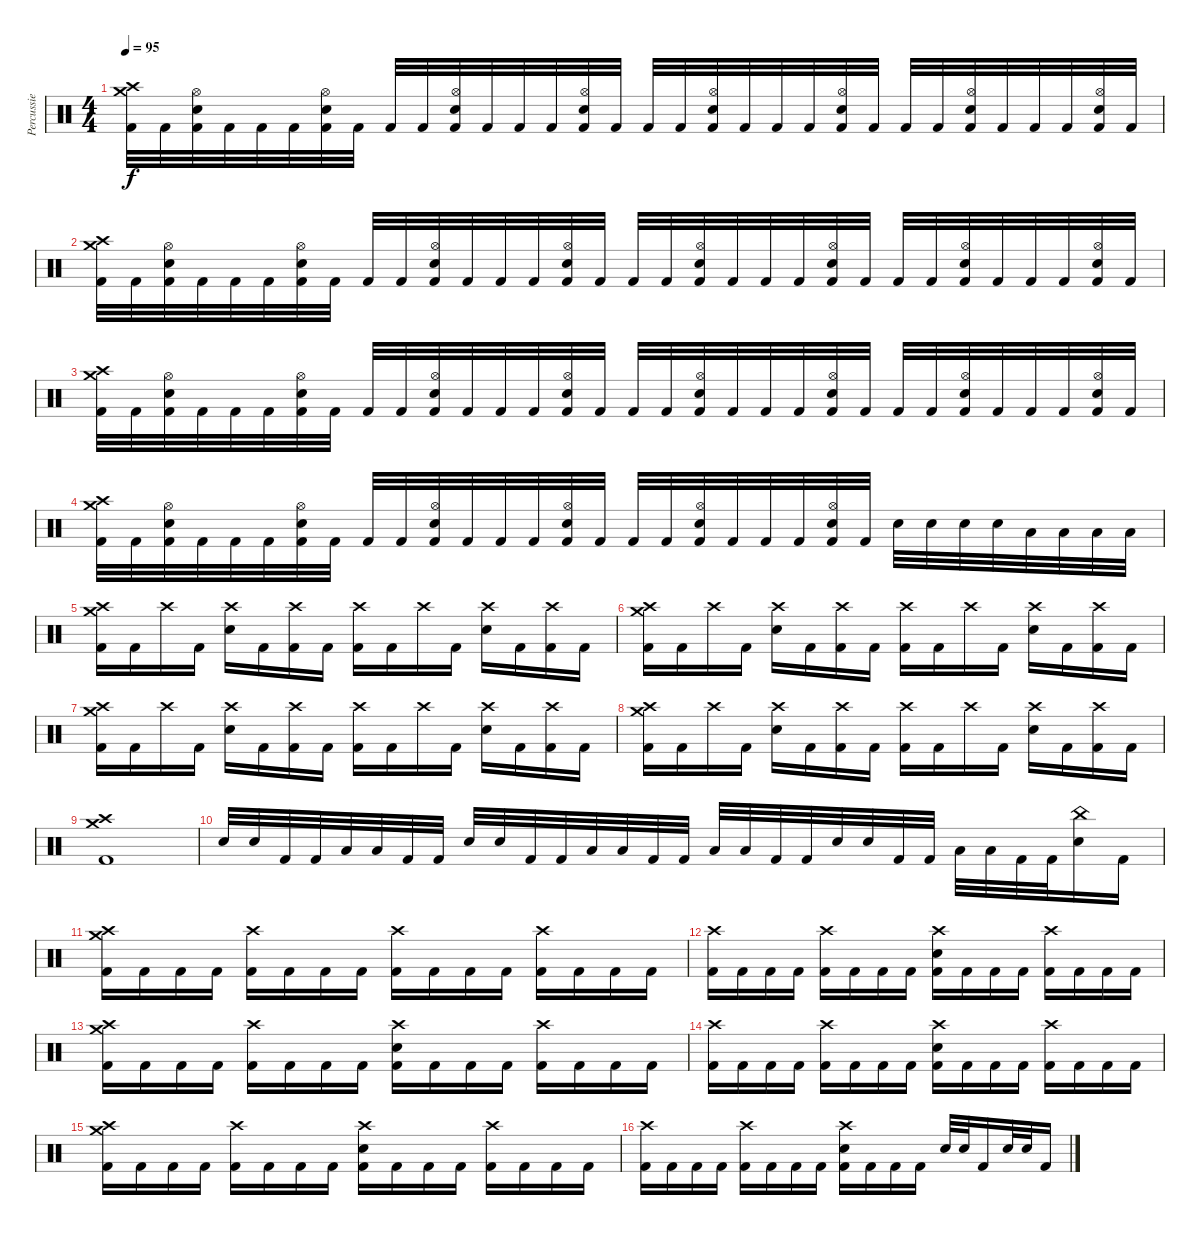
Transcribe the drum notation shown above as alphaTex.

\track ("Percussie" "Percussie") {instrument percussion}
\staff {score}
\articulation defaults
\ts (4 4)
\tempo 95
\clef neutral
\ks c
("Crash medium (hit)" "Crash high (hit)" "Kick (hit) 2").32{dy f} "Kick (hit) 2".32 ("Hi-Hat (open)" "Electric Snare (hit)" "Kick (hit) 2").32 "Kick (hit) 2".32 "Kick (hit) 2".32 "Kick (hit) 2".32 ("Hi-Hat (open)" "Electric Snare (hit)" "Kick (hit) 2").32 "Kick (hit) 2".32 "Kick (hit) 2".32 "Kick (hit) 2".32 ("Hi-Hat (open)" "Electric Snare (hit)" "Kick (hit) 2").32 "Kick (hit) 2".32 "Kick (hit) 2".32 "Kick (hit) 2".32 ("Hi-Hat (open)" "Electric Snare (hit)" "Kick (hit) 2").32 "Kick (hit) 2".32 "Kick (hit) 2".32 "Kick (hit) 2".32 ("Hi-Hat (open)" "Electric Snare (hit)" "Kick (hit) 2").32 "Kick (hit) 2".32 "Kick (hit) 2".32 "Kick (hit) 2".32 ("Hi-Hat (open)" "Electric Snare (hit)" "Kick (hit) 2").32 "Kick (hit) 2".32 "Kick (hit) 2".32 "Kick (hit) 2".32 ("Hi-Hat (open)" "Electric Snare (hit)" "Kick (hit) 2").32 "Kick (hit) 2".32 "Kick (hit) 2".32 "Kick (hit) 2".32 ("Hi-Hat (open)" "Electric Snare (hit)" "Kick (hit) 2").32 "Kick (hit) 2".32 |
("Crash medium (hit)" "Crash high (hit)" "Kick (hit) 2").32 "Kick (hit) 2".32 ("Hi-Hat (open)" "Electric Snare (hit)" "Kick (hit) 2").32 "Kick (hit) 2".32 "Kick (hit) 2".32 "Kick (hit) 2".32 ("Hi-Hat (open)" "Electric Snare (hit)" "Kick (hit) 2").32 "Kick (hit) 2".32 "Kick (hit) 2".32 "Kick (hit) 2".32 ("Hi-Hat (open)" "Electric Snare (hit)" "Kick (hit) 2").32 "Kick (hit) 2".32 "Kick (hit) 2".32 "Kick (hit) 2".32 ("Hi-Hat (open)" "Electric Snare (hit)" "Kick (hit) 2").32 "Kick (hit) 2".32 "Kick (hit) 2".32 "Kick (hit) 2".32 ("Hi-Hat (open)" "Electric Snare (hit)" "Kick (hit) 2").32 "Kick (hit) 2".32 "Kick (hit) 2".32 "Kick (hit) 2".32 ("Hi-Hat (open)" "Electric Snare (hit)" "Kick (hit) 2").32 "Kick (hit) 2".32 "Kick (hit) 2".32 "Kick (hit) 2".32 ("Hi-Hat (open)" "Electric Snare (hit)" "Kick (hit) 2").32 "Kick (hit) 2".32 "Kick (hit) 2".32 "Kick (hit) 2".32 ("Hi-Hat (open)" "Electric Snare (hit)" "Kick (hit) 2").32 "Kick (hit) 2".32 |
("Crash medium (hit)" "Crash high (hit)" "Kick (hit) 2").32 "Kick (hit) 2".32 ("Hi-Hat (open)" "Electric Snare (hit)" "Kick (hit) 2").32 "Kick (hit) 2".32 "Kick (hit) 2".32 "Kick (hit) 2".32 ("Hi-Hat (open)" "Electric Snare (hit)" "Kick (hit) 2").32 "Kick (hit) 2".32 "Kick (hit) 2".32 "Kick (hit) 2".32 ("Hi-Hat (open)" "Electric Snare (hit)" "Kick (hit) 2").32 "Kick (hit) 2".32 "Kick (hit) 2".32 "Kick (hit) 2".32 ("Hi-Hat (open)" "Electric Snare (hit)" "Kick (hit) 2").32 "Kick (hit) 2".32 "Kick (hit) 2".32 "Kick (hit) 2".32 ("Hi-Hat (open)" "Electric Snare (hit)" "Kick (hit) 2").32 "Kick (hit) 2".32 "Kick (hit) 2".32 "Kick (hit) 2".32 ("Hi-Hat (open)" "Electric Snare (hit)" "Kick (hit) 2").32 "Kick (hit) 2".32 "Kick (hit) 2".32 "Kick (hit) 2".32 ("Hi-Hat (open)" "Electric Snare (hit)" "Kick (hit) 2").32 "Kick (hit) 2".32 "Kick (hit) 2".32 "Kick (hit) 2".32 ("Hi-Hat (open)" "Electric Snare (hit)" "Kick (hit) 2").32 "Kick (hit) 2".32 |
("Crash medium (hit)" "Crash high (hit)" "Kick (hit) 2").32 "Kick (hit) 2".32 ("Hi-Hat (open)" "Electric Snare (hit)" "Kick (hit) 2").32 "Kick (hit) 2".32 "Kick (hit) 2".32 "Kick (hit) 2".32 ("Hi-Hat (open)" "Electric Snare (hit)" "Kick (hit) 2").32 "Kick (hit) 2".32 "Kick (hit) 2".32 "Kick (hit) 2".32 ("Hi-Hat (open)" "Electric Snare (hit)" "Kick (hit) 2").32 "Kick (hit) 2".32 "Kick (hit) 2".32 "Kick (hit) 2".32 ("Hi-Hat (open)" "Electric Snare (hit)" "Kick (hit) 2").32 "Kick (hit) 2".32 "Kick (hit) 2".32 "Kick (hit) 2".32 ("Hi-Hat (open)" "Electric Snare (hit)" "Kick (hit) 2").32 "Kick (hit) 2".32 "Kick (hit) 2".32 "Kick (hit) 2".32 ("Hi-Hat (open)" "Electric Snare (hit)" "Kick (hit) 2").32 "Kick (hit) 2".32 "Electric Snare (hit)".32 "Electric Snare (hit)".32 "Electric Snare (hit)".32 "Electric Snare (hit)".32 "Low Tom (hit)".32 "Low Tom (hit)".32 "Low Tom (hit)".32 "Low Tom (hit)".32 |
("Crash medium (hit)" "Crash high (hit)" "Kick (hit) 2").16 "Kick (hit) 2".16 "Crash high (hit)".16 "Kick (hit) 2".16 ("Crash high (hit)" "Electric Snare (hit)").16 "Kick (hit) 2".16 ("Crash high (hit)" "Kick (hit) 2").16 "Kick (hit) 2".16 ("Crash high (hit)" "Kick (hit) 2").16 "Kick (hit) 2".16 "Crash high (hit)".16 "Kick (hit) 2".16 ("Crash high (hit)" "Electric Snare (hit)").16 "Kick (hit) 2".16 ("Crash high (hit)" "Kick (hit) 2").16 "Kick (hit) 2".16 |
("Crash medium (hit)" "Crash high (hit)" "Kick (hit) 2").16 "Kick (hit) 2".16 "Crash high (hit)".16 "Kick (hit) 2".16 ("Crash high (hit)" "Electric Snare (hit)").16 "Kick (hit) 2".16 ("Crash high (hit)" "Kick (hit) 2").16 "Kick (hit) 2".16 ("Crash high (hit)" "Kick (hit) 2").16 "Kick (hit) 2".16 "Crash high (hit)".16 "Kick (hit) 2".16 ("Crash high (hit)" "Electric Snare (hit)").16 "Kick (hit) 2".16 ("Crash high (hit)" "Kick (hit) 2").16 "Kick (hit) 2".16 |
("Crash medium (hit)" "Crash high (hit)" "Kick (hit) 2").16 "Kick (hit) 2".16 "Crash high (hit)".16 "Kick (hit) 2".16 ("Crash high (hit)" "Electric Snare (hit)").16 "Kick (hit) 2".16 ("Crash high (hit)" "Kick (hit) 2").16 "Kick (hit) 2".16 ("Crash high (hit)" "Kick (hit) 2").16 "Kick (hit) 2".16 "Crash high (hit)".16 "Kick (hit) 2".16 ("Crash high (hit)" "Electric Snare (hit)").16 "Kick (hit) 2".16 ("Crash high (hit)" "Kick (hit) 2").16 "Kick (hit) 2".16 |
("Crash medium (hit)" "Crash high (hit)" "Kick (hit) 2").16 "Kick (hit) 2".16 "Crash high (hit)".16 "Kick (hit) 2".16 ("Crash high (hit)" "Electric Snare (hit)").16 "Kick (hit) 2".16 ("Crash high (hit)" "Kick (hit) 2").16 "Kick (hit) 2".16 ("Crash high (hit)" "Kick (hit) 2").16 "Kick (hit) 2".16 "Crash high (hit)".16 "Kick (hit) 2".16 ("Crash high (hit)" "Electric Snare (hit)").16 "Kick (hit) 2".16 ("Crash high (hit)" "Kick (hit) 2").16 "Kick (hit) 2".16 |
("Crash medium (hit)" "Crash high (hit)" "Kick (hit) 2").1 |
"Electric Snare (hit)".32 "Electric Snare (hit)".32 "Kick (hit) 2".32 "Kick (hit) 2".32 "Low Tom (hit)".32 "Low Tom (hit)".32 "Kick (hit) 2".32 "Kick (hit) 2".32 "Electric Snare (hit)".32 "Electric Snare (hit)".32 "Kick (hit) 2".32 "Kick (hit) 2".32 "Low Tom (hit)".32 "Low Tom (hit)".32 "Kick (hit) 2".32 "Kick (hit) 2".32 "Low Floor Tom (hit)".32 "Low Floor Tom (hit)".32 "Kick (hit) 2".32 "Kick (hit) 2".32 "Electric Snare (hit)".32 "Electric Snare (hit)".32 "Kick (hit) 2".32 "Kick (hit) 2".32 "Low Tom (hit)".32 "Low Tom (hit)".32 "Kick (hit) 2".32 "Kick (hit) 2".32 ("China (hit)" "Electric Snare (hit)").16 "Kick (hit) 2".16 |
("Crash medium (hit)" "Crash high (hit)" "Kick (hit) 2").16 "Kick (hit) 2".16 "Kick (hit) 2".16 "Kick (hit) 2".16 ("Crash high (hit)" "Kick (hit) 2").16 "Kick (hit) 2".16 "Kick (hit) 2".16 "Kick (hit) 2".16 ("Crash high (hit)" "Kick (hit) 2").16 "Kick (hit) 2".16 "Kick (hit) 2".16 "Kick (hit) 2".16 ("Crash high (hit)" "Kick (hit) 2").16 "Kick (hit) 2".16 "Kick (hit) 2".16 "Kick (hit) 2".16 |
("Crash high (hit)" "Kick (hit) 2").16 "Kick (hit) 2".16 "Kick (hit) 2".16 "Kick (hit) 2".16 ("Crash high (hit)" "Kick (hit) 2").16 "Kick (hit) 2".16 "Kick (hit) 2".16 "Kick (hit) 2".16 ("Crash high (hit)" "Electric Snare (hit)" "Kick (hit) 2").16 "Kick (hit) 2".16 "Kick (hit) 2".16 "Kick (hit) 2".16 ("Crash high (hit)" "Kick (hit) 2").16 "Kick (hit) 2".16 "Kick (hit) 2".16 "Kick (hit) 2".16 |
("Crash medium (hit)" "Crash high (hit)" "Kick (hit) 2").16 "Kick (hit) 2".16 "Kick (hit) 2".16 "Kick (hit) 2".16 ("Crash high (hit)" "Kick (hit) 2").16 "Kick (hit) 2".16 "Kick (hit) 2".16 "Kick (hit) 2".16 ("Crash high (hit)" "Electric Snare (hit)" "Kick (hit) 2").16 "Kick (hit) 2".16 "Kick (hit) 2".16 "Kick (hit) 2".16 ("Crash high (hit)" "Kick (hit) 2").16 "Kick (hit) 2".16 "Kick (hit) 2".16 "Kick (hit) 2".16 |
("Crash high (hit)" "Kick (hit) 2").16 "Kick (hit) 2".16 "Kick (hit) 2".16 "Kick (hit) 2".16 ("Crash high (hit)" "Kick (hit) 2").16 "Kick (hit) 2".16 "Kick (hit) 2".16 "Kick (hit) 2".16 ("Crash high (hit)" "Electric Snare (hit)" "Kick (hit) 2").16 "Kick (hit) 2".16 "Kick (hit) 2".16 "Kick (hit) 2".16 ("Crash high (hit)" "Kick (hit) 2").16 "Kick (hit) 2".16 "Kick (hit) 2".16 "Kick (hit) 2".16 |
("Crash medium (hit)" "Crash high (hit)" "Kick (hit) 2").16 "Kick (hit) 2".16 "Kick (hit) 2".16 "Kick (hit) 2".16 ("Crash high (hit)" "Kick (hit) 2").16 "Kick (hit) 2".16 "Kick (hit) 2".16 "Kick (hit) 2".16 ("Crash high (hit)" "Electric Snare (hit)" "Kick (hit) 2").16 "Kick (hit) 2".16 "Kick (hit) 2".16 "Kick (hit) 2".16 ("Crash high (hit)" "Kick (hit) 2").16 "Kick (hit) 2".16 "Kick (hit) 2".16 "Kick (hit) 2".16 |
("Crash high (hit)" "Kick (hit) 2").16 "Kick (hit) 2".16 "Kick (hit) 2".16 "Kick (hit) 2".16 ("Crash high (hit)" "Kick (hit) 2").16 "Kick (hit) 2".16 "Kick (hit) 2".16 "Kick (hit) 2".16 ("Crash high (hit)" "Electric Snare (hit)" "Kick (hit) 2").16 "Kick (hit) 2".16 "Kick (hit) 2".16 "Kick (hit) 2".16 "Electric Snare (hit)".32 "Electric Snare (hit)".32 "Kick (hit) 2".16 "Electric Snare (hit)".32 "Electric Snare (hit)".32 "Kick (hit) 2".16
